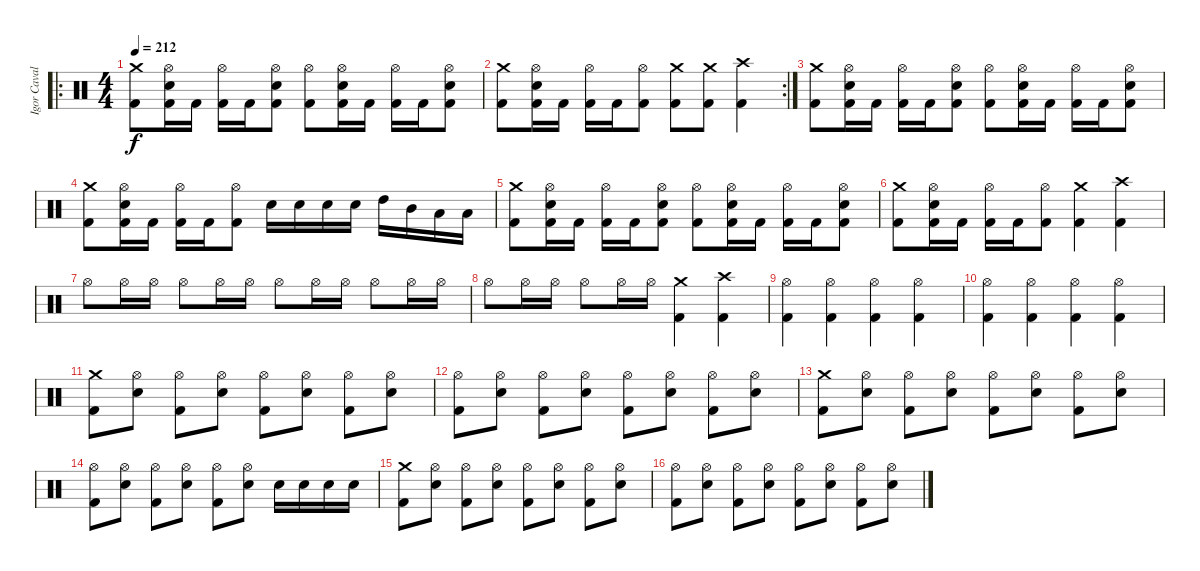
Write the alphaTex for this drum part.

\track ("Igor Cavalera" "Igor Caval") {instrument percussion}
\staff {score}
\articulation defaults
\ro
\ts (4 4)
\tempo 212
\clef neutral
\ks c
("Crash medium (hit)" "Kick (hit) 2").8{dy f} ("Hi-Hat (open)" "Snare (hit) 2" "Kick (hit) 2").16 "Kick (hit) 2".16 ("Hi-Hat (open)" "Kick (hit) 2").16 "Kick (hit) 2".16 ("Hi-Hat (open)" "Snare (hit) 2" "Kick (hit) 2").8 ("Hi-Hat (open)" "Kick (hit) 2").8 ("Hi-Hat (open)" "Snare (hit) 2" "Kick (hit) 2").16 "Kick (hit) 2".16 ("Hi-Hat (open)" "Kick (hit) 2").16 "Kick (hit) 2".16 ("Hi-Hat (open)" "Snare (hit) 2" "Kick (hit) 2").8 |
\rc 2
("Crash medium (hit)" "Kick (hit) 2").8 ("Hi-Hat (open)" "Snare (hit) 2" "Kick (hit) 2").16 "Kick (hit) 2".16 ("Hi-Hat (open)" "Kick (hit) 2").16 "Kick (hit) 2".16 ("Hi-Hat (open)" "Kick (hit) 2").8 ("Crash medium (hit)" "Kick (hit) 2").8 ("Crash medium (hit)" "Kick (hit) 2").8 ("Crash high (hit)" "Kick (hit) 2").4 |
("Crash medium (hit)" "Kick (hit) 2").8 ("Hi-Hat (open)" "Snare (hit) 2" "Kick (hit) 2").16 "Kick (hit) 2".16 ("Hi-Hat (open)" "Kick (hit) 2").16 "Kick (hit) 2".16 ("Hi-Hat (open)" "Snare (hit) 2" "Kick (hit) 2").8 ("Hi-Hat (open)" "Kick (hit) 2").8 ("Hi-Hat (open)" "Snare (hit) 2" "Kick (hit) 2").16 "Kick (hit) 2".16 ("Hi-Hat (open)" "Kick (hit) 2").16 "Kick (hit) 2".16 ("Hi-Hat (open)" "Snare (hit) 2" "Kick (hit) 2").8 |
("Crash medium (hit)" "Kick (hit) 2").8 ("Hi-Hat (open)" "Snare (hit) 2" "Kick (hit) 2").16 "Kick (hit) 2".16 ("Hi-Hat (open)" "Kick (hit) 2").16 "Kick (hit) 2".16 ("Hi-Hat (open)" "Kick (hit) 2").8 "Snare (hit) 2".16 "Snare (hit) 2".16 "Snare (hit) 2".16 "Snare (hit) 2".16 "High Tom (hit)".16 "Mid Tom (hit)".16 "Low Tom (hit)".16 "Low Tom (hit)".16 |
("Crash medium (hit)" "Kick (hit) 2").8 ("Hi-Hat (open)" "Snare (hit) 2" "Kick (hit) 2").16 "Kick (hit) 2".16 ("Hi-Hat (open)" "Kick (hit) 2").16 "Kick (hit) 2".16 ("Hi-Hat (open)" "Snare (hit) 2" "Kick (hit) 2").8 ("Hi-Hat (open)" "Kick (hit) 2").8 ("Hi-Hat (open)" "Snare (hit) 2" "Kick (hit) 2").16 "Kick (hit) 2".16 ("Hi-Hat (open)" "Kick (hit) 2").16 "Kick (hit) 2".16 ("Hi-Hat (open)" "Snare (hit) 2" "Kick (hit) 2").8 |
("Crash medium (hit)" "Kick (hit) 2").8 ("Hi-Hat (open)" "Snare (hit) 2" "Kick (hit) 2").16 "Kick (hit) 2".16 ("Hi-Hat (open)" "Kick (hit) 2").16 "Kick (hit) 2".16 ("Hi-Hat (open)" "Kick (hit) 2").8 ("Crash medium (hit)" "Kick (hit) 2").4 ("Crash high (hit)" "Kick (hit) 2").4 |
"Hi-Hat (open)".8 "Hi-Hat (open)".16 "Hi-Hat (open)".16 "Hi-Hat (open)".8 "Hi-Hat (open)".16 "Hi-Hat (open)".16 "Hi-Hat (open)".8 "Hi-Hat (open)".16 "Hi-Hat (open)".16 "Hi-Hat (open)".8 "Hi-Hat (open)".16 "Hi-Hat (open)".16 |
"Hi-Hat (open)".8 "Hi-Hat (open)".16 "Hi-Hat (open)".16 "Hi-Hat (open)".8 "Hi-Hat (open)".16 "Hi-Hat (open)".16 ("Kick (hit) 2" "Crash medium (hit)").4 ("Kick (hit) 2" "Crash high (hit)").4 |
("Hi-Hat (open)" "Kick (hit) 2").4 ("Hi-Hat (open)" "Kick (hit) 2").4 ("Hi-Hat (open)" "Kick (hit) 2").4 ("Hi-Hat (open)" "Kick (hit) 2").4 |
("Hi-Hat (open)" "Kick (hit) 2").4 ("Hi-Hat (open)" "Kick (hit) 2").4 ("Hi-Hat (open)" "Kick (hit) 2").4 ("Hi-Hat (open)" "Kick (hit) 2").4 |
("Kick (hit) 2" "Crash medium (hit)").8 ("Snare (hit) 2" "Hi-Hat (open)").8 ("Kick (hit) 2" "Hi-Hat (open)").8 ("Snare (hit) 2" "Hi-Hat (open)").8 ("Kick (hit) 2" "Hi-Hat (open)").8 ("Snare (hit) 2" "Hi-Hat (open)").8 ("Kick (hit) 2" "Hi-Hat (open)").8 ("Snare (hit) 2" "Hi-Hat (open)").8 |
("Kick (hit) 2" "Hi-Hat (open)").8 ("Snare (hit) 2" "Hi-Hat (open)").8 ("Kick (hit) 2" "Hi-Hat (open)").8 ("Snare (hit) 2" "Hi-Hat (open)").8 ("Kick (hit) 2" "Hi-Hat (open)").8 ("Snare (hit) 2" "Hi-Hat (open)").8 ("Kick (hit) 2" "Hi-Hat (open)").8 ("Snare (hit) 2" "Hi-Hat (open)").8 |
("Kick (hit) 2" "Crash medium (hit)").8 ("Snare (hit) 2" "Hi-Hat (open)").8 ("Kick (hit) 2" "Hi-Hat (open)").8 ("Snare (hit) 2" "Hi-Hat (open)").8 ("Kick (hit) 2" "Hi-Hat (open)").8 ("Snare (hit) 2" "Hi-Hat (open)").8 ("Kick (hit) 2" "Hi-Hat (open)").8 ("Snare (hit) 2" "Hi-Hat (open)").8 |
("Kick (hit) 2" "Hi-Hat (open)").8 ("Snare (hit) 2" "Hi-Hat (open)").8 ("Kick (hit) 2" "Hi-Hat (open)").8 ("Snare (hit) 2" "Hi-Hat (open)").8 ("Kick (hit) 2" "Hi-Hat (open)").8 ("Snare (hit) 2" "Hi-Hat (open)").8 "Snare (hit) 2".16 "Snare (hit) 2".16 "Snare (hit) 2".16 "Snare (hit) 2".16 |
("Kick (hit) 2" "Crash medium (hit)").8 ("Snare (hit) 2" "Hi-Hat (open)").8 ("Kick (hit) 2" "Hi-Hat (open)").8 ("Snare (hit) 2" "Hi-Hat (open)").8 ("Kick (hit) 2" "Hi-Hat (open)").8 ("Snare (hit) 2" "Hi-Hat (open)").8 ("Kick (hit) 2" "Hi-Hat (open)").8 ("Snare (hit) 2" "Hi-Hat (open)").8 |
("Kick (hit) 2" "Hi-Hat (open)").8 ("Snare (hit) 2" "Hi-Hat (open)").8 ("Kick (hit) 2" "Hi-Hat (open)").8 ("Snare (hit) 2" "Hi-Hat (open)").8 ("Kick (hit) 2" "Hi-Hat (open)").8 ("Snare (hit) 2" "Hi-Hat (open)").8 ("Kick (hit) 2" "Hi-Hat (open)").8 ("Snare (hit) 2" "Hi-Hat (open)").8
